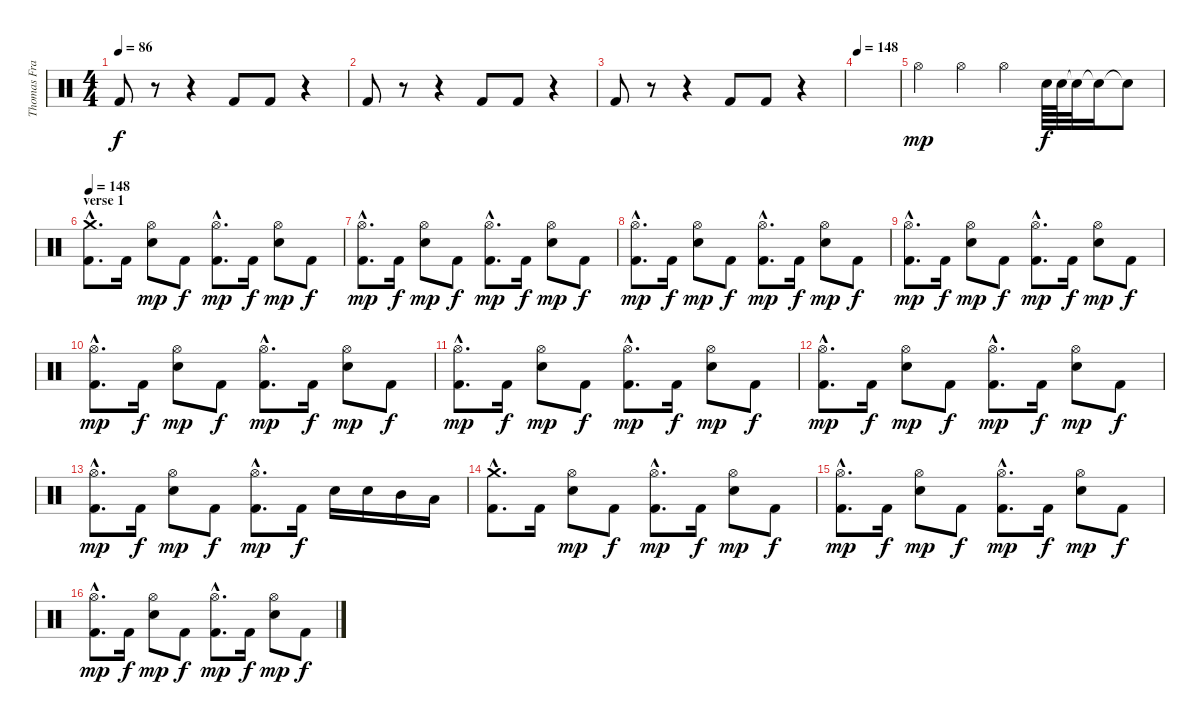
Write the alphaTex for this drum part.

\track ("Thomas Franke" "Thomas Fra") {instrument percussion}
\staff {score}
\articulation defaults
\ts (4 4)
\tempo 86
\clef neutral
\ks c "Kick (hit) 2".8{dy f}
r.8 r.4 "Kick (hit) 2".8 "Kick (hit) 2".8 r.4 |
"Kick (hit) 2".8 r.8 r.4 "Kick (hit) 2".8 "Kick (hit) 2".8 r.4 |
"Kick (hit) 2".8 r.8 r.4 "Kick (hit) 2".8 "Kick (hit) 2".8 r.4 |
\tempo 148
|
"Hi-Hat (open)".4{dy mp} "Hi-Hat (open)".4 "Hi-Hat (open)".4 "Snare (hit) 2".64{dy f} "Snare (hit) 2".64 "Snare (hit)"{t}.32 "Snare (hit)"{t}.16 "Snare (hit)"{t}.8 |
\section ("" "verse 1")
\tempo 148
("Kick (hit) 2"{hac} "Crash medium (hit)"{hac}).8{d} "Kick (hit) 2".16 ("Hi-Hat (open)" "Snare (hit) 2").8{dy mp} "Kick (hit) 2".8{dy f} ("Kick (hit) 2"{hac} "Hi-Hat (open)"{hac}).8{d dy mp} "Kick (hit) 2".16{dy f} ("Hi-Hat (open)" "Snare (hit) 2").8{dy mp} "Kick (hit) 2".8{dy f} |
("Kick (hit) 2"{hac} "Hi-Hat (open)"{hac}).8{d dy mp} "Kick (hit) 2".16{dy f} ("Hi-Hat (open)" "Snare (hit) 2").8{dy mp} "Kick (hit) 2".8{dy f} ("Kick (hit) 2"{hac} "Hi-Hat (open)"{hac}).8{d dy mp} "Kick (hit) 2".16{dy f} ("Hi-Hat (open)" "Snare (hit) 2").8{dy mp} "Kick (hit) 2".8{dy f} |
("Kick (hit) 2"{hac} "Hi-Hat (open)"{hac}).8{d dy mp} "Kick (hit) 2".16{dy f} ("Hi-Hat (open)" "Snare (hit) 2").8{dy mp} "Kick (hit) 2".8{dy f} ("Kick (hit) 2"{hac} "Hi-Hat (open)"{hac}).8{d dy mp} "Kick (hit) 2".16{dy f} ("Hi-Hat (open)" "Snare (hit) 2").8{dy mp} "Kick (hit) 2".8{dy f} |
("Kick (hit) 2"{hac} "Hi-Hat (open)"{hac}).8{d dy mp} "Kick (hit) 2".16{dy f} ("Hi-Hat (open)" "Snare (hit) 2").8{dy mp} "Kick (hit) 2".8{dy f} ("Kick (hit) 2"{hac} "Hi-Hat (open)"{hac}).8{d dy mp} "Kick (hit) 2".16{dy f} ("Hi-Hat (open)" "Snare (hit) 2").8{dy mp} "Kick (hit) 2".8{dy f} |
("Kick (hit) 2"{hac} "Hi-Hat (open)"{hac}).8{d dy mp} "Kick (hit) 2".16{dy f} ("Hi-Hat (open)" "Snare (hit) 2").8{dy mp} "Kick (hit) 2".8{dy f} ("Kick (hit) 2"{hac} "Hi-Hat (open)"{hac}).8{d dy mp} "Kick (hit) 2".16{dy f} ("Hi-Hat (open)" "Snare (hit) 2").8{dy mp} "Kick (hit) 2".8{dy f} |
("Kick (hit) 2"{hac} "Hi-Hat (open)"{hac}).8{d dy mp} "Kick (hit) 2".16{dy f} ("Hi-Hat (open)" "Snare (hit) 2").8{dy mp} "Kick (hit) 2".8{dy f} ("Kick (hit) 2"{hac} "Hi-Hat (open)"{hac}).8{d dy mp} "Kick (hit) 2".16{dy f} ("Hi-Hat (open)" "Snare (hit) 2").8{dy mp} "Kick (hit) 2".8{dy f} |
("Kick (hit) 2"{hac} "Hi-Hat (open)"{hac}).8{d dy mp} "Kick (hit) 2".16{dy f} ("Hi-Hat (open)" "Snare (hit) 2").8{dy mp} "Kick (hit) 2".8{dy f} ("Kick (hit) 2"{hac} "Hi-Hat (open)"{hac}).8{d dy mp} "Kick (hit) 2".16{dy f} ("Hi-Hat (open)" "Snare (hit) 2").8{dy mp} "Kick (hit) 2".8{dy f} |
("Kick (hit) 2"{hac} "Hi-Hat (open)"{hac}).8{d dy mp} "Kick (hit) 2".16{dy f} ("Hi-Hat (open)" "Snare (hit) 2").8{dy mp} "Kick (hit) 2".8{dy f} ("Kick (hit) 2"{hac} "Hi-Hat (open)"{hac}).8{d dy mp} "Kick (hit) 2".16{dy f} "Snare (hit) 2".16 "Snare (hit) 2".16 "Mid Tom (hit)".16 "Low Tom (hit)".16 |
("Kick (hit) 2"{hac} "Crash medium (hit)"{hac}).8{d} "Kick (hit) 2".16 ("Hi-Hat (open)" "Snare (hit) 2").8{dy mp} "Kick (hit) 2".8{dy f} ("Kick (hit) 2"{hac} "Hi-Hat (open)"{hac}).8{d dy mp} "Kick (hit) 2".16{dy f} ("Hi-Hat (open)" "Snare (hit) 2").8{dy mp} "Kick (hit) 2".8{dy f} |
("Kick (hit) 2"{hac} "Hi-Hat (open)"{hac}).8{d dy mp} "Kick (hit) 2".16{dy f} ("Hi-Hat (open)" "Snare (hit) 2").8{dy mp} "Kick (hit) 2".8{dy f} ("Kick (hit) 2"{hac} "Hi-Hat (open)"{hac}).8{d dy mp} "Kick (hit) 2".16{dy f} ("Hi-Hat (open)" "Snare (hit) 2").8{dy mp} "Kick (hit) 2".8{dy f} |
("Kick (hit) 2"{hac} "Hi-Hat (open)"{hac}).8{d dy mp} "Kick (hit) 2".16{dy f} ("Hi-Hat (open)" "Snare (hit) 2").8{dy mp} "Kick (hit) 2".8{dy f} ("Kick (hit) 2"{hac} "Hi-Hat (open)"{hac}).8{d dy mp} "Kick (hit) 2".16{dy f} ("Hi-Hat (open)" "Snare (hit) 2").8{dy mp} "Kick (hit) 2".8{dy f}
